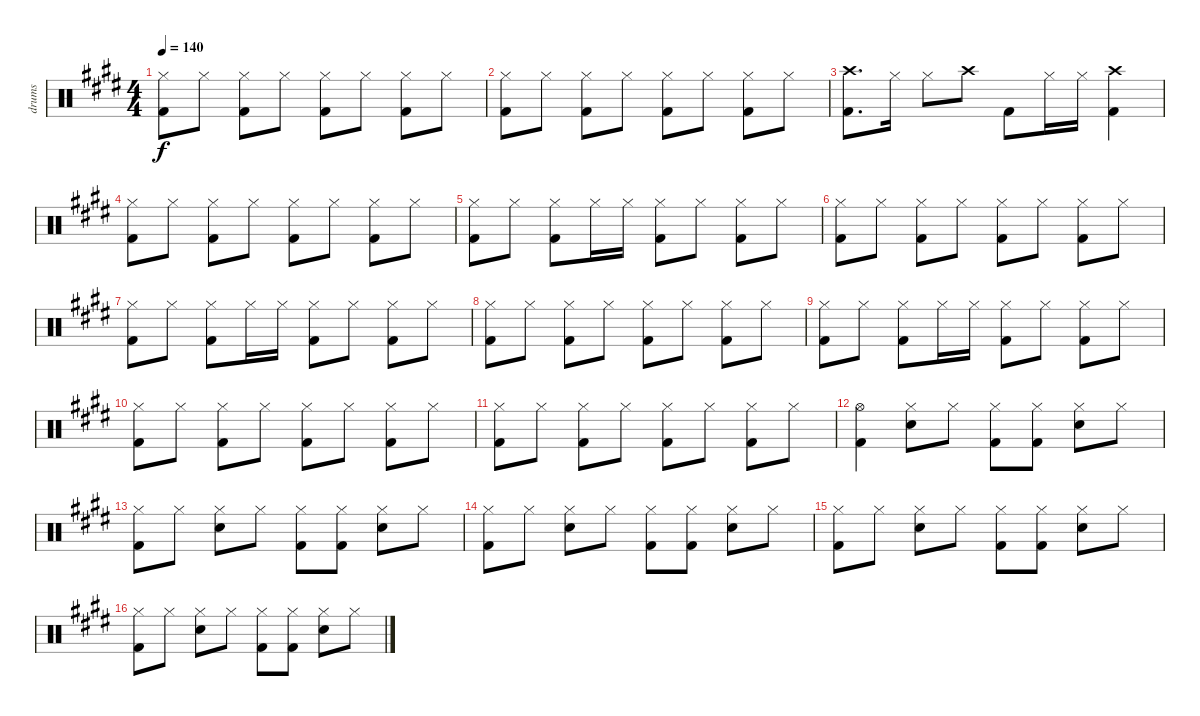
\track ("drums" "drums") {instrument percussion}
\staff {score}
\articulation defaults
\ts (4 4)
\tempo 140
\clef neutral
\ks e
("Hi-Hat (closed)" "Kick (hit) 2").8{dy f} "Hi-Hat (closed)".8 ("Hi-Hat (closed)" "Kick (hit) 2").8 "Hi-Hat (closed)".8 ("Hi-Hat (closed)" "Kick (hit) 2").8 "Hi-Hat (closed)".8 ("Hi-Hat (closed)" "Kick (hit) 2").8 "Hi-Hat (closed)".8 |
("Hi-Hat (closed)" "Kick (hit) 2").8 "Hi-Hat (closed)".8 ("Hi-Hat (closed)" "Kick (hit) 2").8 "Hi-Hat (closed)".8 ("Hi-Hat (closed)" "Kick (hit) 2").8 "Hi-Hat (closed)".8 ("Hi-Hat (closed)" "Kick (hit) 2").8 "Hi-Hat (closed)".8 |
("Crash high (hit)" "Kick (hit) 2").8{d} "Hi-Hat (closed)".16 "Hi-Hat (closed)".8 "Crash high (hit)".8 "Kick (hit) 2".8 "Hi-Hat (closed)".16 "Hi-Hat (closed)".16 ("Crash high (hit)" "Kick (hit) 2").4 |
("Hi-Hat (closed)" "Kick (hit) 2").8 "Hi-Hat (closed)".8 ("Hi-Hat (closed)" "Kick (hit) 2").8 "Hi-Hat (closed)".8 ("Hi-Hat (closed)" "Kick (hit) 2").8 "Hi-Hat (closed)".8 ("Hi-Hat (closed)" "Kick (hit) 2").8 "Hi-Hat (closed)".8 |
("Hi-Hat (closed)" "Kick (hit) 2").8 "Hi-Hat (closed)".8 ("Hi-Hat (closed)" "Kick (hit) 2").8 "Hi-Hat (closed)".16 "Hi-Hat (closed)".16 ("Hi-Hat (closed)" "Kick (hit) 2").8 "Hi-Hat (closed)".8 ("Hi-Hat (closed)" "Kick (hit) 2").8 "Hi-Hat (closed)".8 |
("Hi-Hat (closed)" "Kick (hit) 2").8 "Hi-Hat (closed)".8 ("Hi-Hat (closed)" "Kick (hit) 2").8 "Hi-Hat (closed)".8 ("Hi-Hat (closed)" "Kick (hit) 2").8 "Hi-Hat (closed)".8 ("Hi-Hat (closed)" "Kick (hit) 2").8 "Hi-Hat (closed)".8 |
("Hi-Hat (closed)" "Kick (hit) 2").8 "Hi-Hat (closed)".8 ("Hi-Hat (closed)" "Kick (hit) 2").8 "Hi-Hat (closed)".16 "Hi-Hat (closed)".16 ("Hi-Hat (closed)" "Kick (hit) 2").8 "Hi-Hat (closed)".8 ("Hi-Hat (closed)" "Kick (hit) 2").8 "Hi-Hat (closed)".8 |
("Hi-Hat (closed)" "Kick (hit) 2").8 "Hi-Hat (closed)".8 ("Hi-Hat (closed)" "Kick (hit) 2").8 "Hi-Hat (closed)".8 ("Hi-Hat (closed)" "Kick (hit) 2").8 "Hi-Hat (closed)".8 ("Hi-Hat (closed)" "Kick (hit) 2").8 "Hi-Hat (closed)".8 |
("Hi-Hat (closed)" "Kick (hit) 2").8 "Hi-Hat (closed)".8 ("Hi-Hat (closed)" "Kick (hit) 2").8 "Hi-Hat (closed)".16 "Hi-Hat (closed)".16 ("Hi-Hat (closed)" "Kick (hit) 2").8 "Hi-Hat (closed)".8 ("Hi-Hat (closed)" "Kick (hit) 2").8 "Hi-Hat (closed)".8 |
("Hi-Hat (closed)" "Kick (hit) 2").8 "Hi-Hat (closed)".8 ("Hi-Hat (closed)" "Kick (hit) 2").8 "Hi-Hat (closed)".8 ("Hi-Hat (closed)" "Kick (hit) 2").8 "Hi-Hat (closed)".8 ("Hi-Hat (closed)" "Kick (hit) 2").8 "Hi-Hat (closed)".8 |
("Hi-Hat (closed)" "Kick (hit) 2").8 "Hi-Hat (closed)".8 ("Hi-Hat (closed)" "Kick (hit) 2").8 "Hi-Hat (closed)".8 ("Hi-Hat (closed)" "Kick (hit) 2").8 "Hi-Hat (closed)".8 ("Hi-Hat (closed)" "Kick (hit) 2").8 "Hi-Hat (closed)".8 |
("Hi-Hat (open)" "Kick (hit) 2").4 ("Hi-Hat (closed)" "Snare (hit) 2").8 "Hi-Hat (closed)".8 ("Hi-Hat (closed)" "Kick (hit) 2").8 ("Hi-Hat (closed)" "Kick (hit) 2").8 ("Hi-Hat (closed)" "Snare (hit) 2").8 "Hi-Hat (closed)".8 |
("Hi-Hat (closed)" "Kick (hit) 2").8 "Hi-Hat (closed)".8 ("Hi-Hat (closed)" "Snare (hit) 2").8 "Hi-Hat (closed)".8 ("Hi-Hat (closed)" "Kick (hit) 2").8 ("Hi-Hat (closed)" "Kick (hit) 2").8 ("Hi-Hat (closed)" "Snare (hit) 2").8 "Hi-Hat (closed)".8 |
("Hi-Hat (closed)" "Kick (hit) 2").8 "Hi-Hat (closed)".8 ("Hi-Hat (closed)" "Snare (hit) 2").8 "Hi-Hat (closed)".8 ("Hi-Hat (closed)" "Kick (hit) 2").8 ("Hi-Hat (closed)" "Kick (hit) 2").8 ("Hi-Hat (closed)" "Snare (hit) 2").8 "Hi-Hat (closed)".8 |
("Hi-Hat (closed)" "Kick (hit) 2").8 "Hi-Hat (closed)".8 ("Hi-Hat (closed)" "Snare (hit) 2").8 "Hi-Hat (closed)".8 ("Hi-Hat (closed)" "Kick (hit) 2").8 ("Hi-Hat (closed)" "Kick (hit) 2").8 ("Hi-Hat (closed)" "Snare (hit) 2").8 "Hi-Hat (closed)".8 |
("Hi-Hat (closed)" "Kick (hit) 2").8 "Hi-Hat (closed)".8 ("Hi-Hat (closed)" "Snare (hit) 2").8 "Hi-Hat (closed)".8 ("Hi-Hat (closed)" "Kick (hit) 2").8 ("Hi-Hat (closed)" "Kick (hit) 2").8 ("Hi-Hat (closed)" "Snare (hit) 2").8 "Hi-Hat (closed)".8
